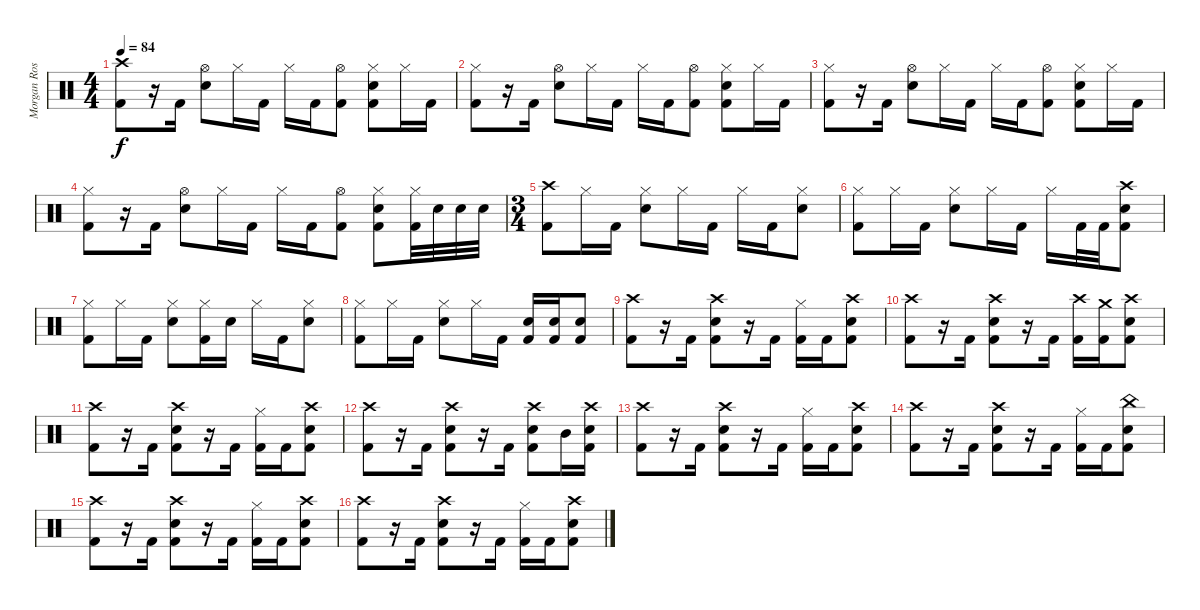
\track ("Morgan Rose - Drums" "Morgan Ros") {instrument percussion}
\staff {score}
\articulation defaults
\ts (4 4)
\tempo 84
\clef neutral
\ks c
("Crash high (hit)" "Kick (hit) 2").8{dy f} r.16 "Kick (hit) 2".16 ("Hi-Hat (open)" "Electric Snare (hit)").8 "Hi-Hat (closed)".16 "Kick (hit) 2".16 "Hi-Hat (closed)".16 "Kick (hit) 2".16 ("Hi-Hat (open)" "Kick (hit) 2").8 ("Hi-Hat (closed)" "Electric Snare (hit)" "Kick (hit) 2").8 "Hi-Hat (closed)".16 "Kick (hit) 2".16 |
("Hi-Hat (closed)" "Kick (hit) 2").8 r.16 "Kick (hit) 2".16 ("Hi-Hat (open)" "Electric Snare (hit)").8 "Hi-Hat (closed)".16 "Kick (hit) 2".16 "Hi-Hat (closed)".16 "Kick (hit) 2".16 ("Hi-Hat (open)" "Kick (hit) 2").8 ("Hi-Hat (closed)" "Electric Snare (hit)" "Kick (hit) 2").8 "Hi-Hat (closed)".16 "Kick (hit) 2".16 |
("Hi-Hat (closed)" "Kick (hit) 2").8 r.16 "Kick (hit) 2".16 ("Hi-Hat (open)" "Electric Snare (hit)").8 "Hi-Hat (closed)".16 "Kick (hit) 2".16 "Hi-Hat (closed)".16 "Kick (hit) 2".16 ("Hi-Hat (open)" "Kick (hit) 2").8 ("Hi-Hat (closed)" "Electric Snare (hit)" "Kick (hit) 2").8 "Hi-Hat (closed)".16 "Kick (hit) 2".16 |
("Hi-Hat (closed)" "Kick (hit) 2").8 r.16 "Kick (hit) 2".16 ("Hi-Hat (open)" "Electric Snare (hit)").8 "Hi-Hat (closed)".16 "Kick (hit) 2".16 "Hi-Hat (closed)".16 "Kick (hit) 2".16 ("Hi-Hat (open)" "Kick (hit) 2").8 ("Hi-Hat (closed)" "Electric Snare (hit)" "Kick (hit) 2").8 ("Hi-Hat (closed)" "Kick (hit) 2").32 "Electric Snare (hit)".32 "Electric Snare (hit)".32 "Electric Snare (hit)".32 |
\ts (3 4)
("Crash high (hit)" "Kick (hit) 2").8 "Hi-Hat (closed)".16 "Kick (hit) 2".16 ("Hi-Hat (closed)" "Electric Snare (hit)").8 "Hi-Hat (closed)".16 "Kick (hit) 2".16 "Hi-Hat (closed)".16 "Kick (hit) 2".16 ("Hi-Hat (closed)" "Electric Snare (hit)").8 |
("Hi-Hat (closed)" "Kick (hit) 2").8 "Hi-Hat (closed)".16 "Kick (hit) 2".16 ("Hi-Hat (closed)" "Electric Snare (hit)").8 "Hi-Hat (closed)".16 "Kick (hit) 2".16 "Hi-Hat (closed)".16 "Kick (hit) 2".32 "Kick (hit) 2".32 ("Crash high (hit)" "Electric Snare (hit)" "Kick (hit) 2").8 |
("Hi-Hat (closed)" "Kick (hit) 2").8 "Hi-Hat (closed)".16 "Kick (hit) 2".16 ("Hi-Hat (closed)" "Electric Snare (hit)").8 ("Hi-Hat (closed)" "Kick (hit) 2").16 "Electric Snare (hit)".16 "Hi-Hat (closed)".16 "Kick (hit) 2".16 ("Hi-Hat (closed)" "Electric Snare (hit)").8 |
("Hi-Hat (closed)" "Kick (hit) 2").8 "Hi-Hat (closed)".16 "Kick (hit) 2".16 ("Hi-Hat (closed)" "Electric Snare (hit)").8 "Hi-Hat (closed)".16 "Kick (hit) 2".16 ("Electric Snare (hit)" "Kick (hit) 2").16 ("Electric Snare (hit)" "Kick (hit) 2").16 ("Electric Snare (hit)" "Kick (hit) 2").8 |
("Crash high (hit)" "Kick (hit) 2").8 r.16 "Kick (hit) 2".16 ("Crash high (hit)" "Electric Snare (hit)" "Kick (hit) 2").8 r.16 "Kick (hit) 2".16 ("Hi-Hat (closed)" "Kick (hit) 2").16 "Kick (hit) 2".16 ("Crash high (hit)" "Electric Snare (hit)" "Kick (hit) 2").8 |
("Crash high (hit)" "Kick (hit) 2").8 r.16 "Kick (hit) 2".16 ("Crash high (hit)" "Electric Snare (hit)" "Kick (hit) 2").8 r.16 "Kick (hit) 2".16 ("Crash high (hit)" "Kick (hit) 2").16 ("Crash medium (hit)" "Kick (hit) 2").16 ("Crash high (hit)" "Electric Snare (hit)" "Kick (hit) 2").8 |
("Crash high (hit)" "Kick (hit) 2").8 r.16 "Kick (hit) 2".16 ("Crash high (hit)" "Electric Snare (hit)" "Kick (hit) 2").8 r.16 "Kick (hit) 2".16 ("Hi-Hat (closed)" "Kick (hit) 2").16 "Kick (hit) 2".16 ("Crash high (hit)" "Electric Snare (hit)" "Kick (hit) 2").8 |
("Crash high (hit)" "Kick (hit) 2").8 r.16 "Kick (hit) 2".16 ("Crash high (hit)" "Electric Snare (hit)" "Kick (hit) 2").8 r.16 "Kick (hit) 2".16 ("Crash high (hit)" "Electric Snare (hit)" "Kick (hit) 2").8 "Mid Tom (hit)".16 ("Crash high (hit)" "Electric Snare (hit)" "Kick (hit) 2").16 |
("Crash high (hit)" "Kick (hit) 2").8 r.16 "Kick (hit) 2".16 ("Crash high (hit)" "Electric Snare (hit)" "Kick (hit) 2").8 r.16 "Kick (hit) 2".16 ("Hi-Hat (closed)" "Kick (hit) 2").16 "Kick (hit) 2".16 ("Crash high (hit)" "Electric Snare (hit)" "Kick (hit) 2").8 |
("Crash high (hit)" "Kick (hit) 2").8 r.16 "Kick (hit) 2".16 ("Crash high (hit)" "Electric Snare (hit)" "Kick (hit) 2").8 r.16 "Kick (hit) 2".16 ("Hi-Hat (closed)" "Kick (hit) 2").16 "Kick (hit) 2".16 ("China (hit)" "Electric Snare (hit)" "Kick (hit) 2").8 |
("Crash high (hit)" "Kick (hit) 2").8 r.16 "Kick (hit) 2".16 ("Crash high (hit)" "Electric Snare (hit)" "Kick (hit) 2").8 r.16 "Kick (hit) 2".16 ("Hi-Hat (closed)" "Kick (hit) 2").16 "Kick (hit) 2".16 ("Crash high (hit)" "Electric Snare (hit)" "Kick (hit) 2").8 |
("Crash high (hit)" "Kick (hit) 2").8 r.16 "Kick (hit) 2".16 ("Crash high (hit)" "Electric Snare (hit)" "Kick (hit) 2").8 r.16 "Kick (hit) 2".16 ("Hi-Hat (closed)" "Kick (hit) 2").16 "Kick (hit) 2".16 ("Crash high (hit)" "Electric Snare (hit)" "Kick (hit) 2").8
